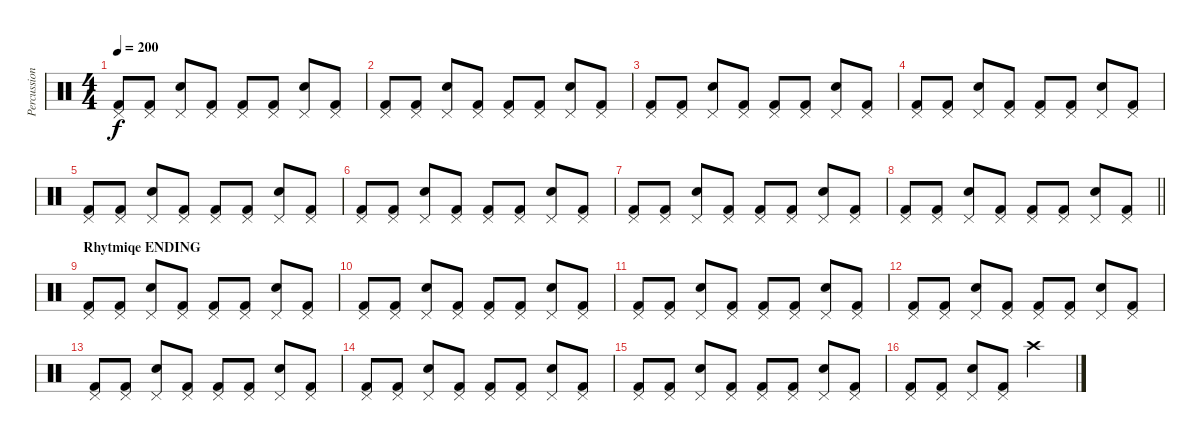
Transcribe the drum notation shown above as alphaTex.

\track ("Percussion" "Percussion") {instrument percussion}
\staff {score}
\articulation defaults
\ts (4 4)
\tempo 200
\clef neutral
\ks c
("Kick (hit) 2" "Pedal Hi-Hat (hit)").8{dy f} ("Kick (hit) 2" "Pedal Hi-Hat (hit)").8 ("Snare (hit) 2" "Pedal Hi-Hat (hit)").8 ("Kick (hit) 2" "Pedal Hi-Hat (hit)").8 ("Kick (hit) 2" "Pedal Hi-Hat (hit)").8 ("Kick (hit) 2" "Pedal Hi-Hat (hit)").8 ("Snare (hit) 2" "Pedal Hi-Hat (hit)").8 ("Kick (hit) 2" "Pedal Hi-Hat (hit)").8 |
("Kick (hit) 2" "Pedal Hi-Hat (hit)").8 ("Kick (hit) 2" "Pedal Hi-Hat (hit)").8 ("Snare (hit) 2" "Pedal Hi-Hat (hit)").8 ("Kick (hit) 2" "Pedal Hi-Hat (hit)").8 ("Kick (hit) 2" "Pedal Hi-Hat (hit)").8 ("Kick (hit) 2" "Pedal Hi-Hat (hit)").8 ("Snare (hit) 2" "Pedal Hi-Hat (hit)").8 ("Kick (hit) 2" "Pedal Hi-Hat (hit)").8 |
("Kick (hit) 2" "Pedal Hi-Hat (hit)").8 ("Kick (hit) 2" "Pedal Hi-Hat (hit)").8 ("Snare (hit) 2" "Pedal Hi-Hat (hit)").8 ("Kick (hit) 2" "Pedal Hi-Hat (hit)").8 ("Kick (hit) 2" "Pedal Hi-Hat (hit)").8 ("Kick (hit) 2" "Pedal Hi-Hat (hit)").8 ("Snare (hit) 2" "Pedal Hi-Hat (hit)").8 ("Kick (hit) 2" "Pedal Hi-Hat (hit)").8 |
("Kick (hit) 2" "Pedal Hi-Hat (hit)").8 ("Kick (hit) 2" "Pedal Hi-Hat (hit)").8 ("Snare (hit) 2" "Pedal Hi-Hat (hit)").8 ("Kick (hit) 2" "Pedal Hi-Hat (hit)").8 ("Kick (hit) 2" "Pedal Hi-Hat (hit)").8 ("Kick (hit) 2" "Pedal Hi-Hat (hit)").8 ("Snare (hit) 2" "Pedal Hi-Hat (hit)").8 ("Kick (hit) 2" "Pedal Hi-Hat (hit)").8 |
("Kick (hit) 2" "Pedal Hi-Hat (hit)").8 ("Kick (hit) 2" "Pedal Hi-Hat (hit)").8 ("Snare (hit) 2" "Pedal Hi-Hat (hit)").8 ("Kick (hit) 2" "Pedal Hi-Hat (hit)").8 ("Kick (hit) 2" "Pedal Hi-Hat (hit)").8 ("Kick (hit) 2" "Pedal Hi-Hat (hit)").8 ("Snare (hit) 2" "Pedal Hi-Hat (hit)").8 ("Kick (hit) 2" "Pedal Hi-Hat (hit)").8 |
("Kick (hit) 2" "Pedal Hi-Hat (hit)").8 ("Kick (hit) 2" "Pedal Hi-Hat (hit)").8 ("Snare (hit) 2" "Pedal Hi-Hat (hit)").8 ("Kick (hit) 2" "Pedal Hi-Hat (hit)").8 ("Kick (hit) 2" "Pedal Hi-Hat (hit)").8 ("Kick (hit) 2" "Pedal Hi-Hat (hit)").8 ("Snare (hit) 2" "Pedal Hi-Hat (hit)").8 ("Kick (hit) 2" "Pedal Hi-Hat (hit)").8 |
("Kick (hit) 2" "Pedal Hi-Hat (hit)").8 ("Kick (hit) 2" "Pedal Hi-Hat (hit)").8 ("Snare (hit) 2" "Pedal Hi-Hat (hit)").8 ("Kick (hit) 2" "Pedal Hi-Hat (hit)").8 ("Kick (hit) 2" "Pedal Hi-Hat (hit)").8 ("Kick (hit) 2" "Pedal Hi-Hat (hit)").8 ("Snare (hit) 2" "Pedal Hi-Hat (hit)").8 ("Kick (hit) 2" "Pedal Hi-Hat (hit)").8 |
\barLineRight lightlight
("Kick (hit) 2" "Pedal Hi-Hat (hit)").8 ("Kick (hit) 2" "Pedal Hi-Hat (hit)").8 ("Snare (hit) 2" "Pedal Hi-Hat (hit)").8 ("Kick (hit) 2" "Pedal Hi-Hat (hit)").8 ("Kick (hit) 2" "Pedal Hi-Hat (hit)").8 ("Kick (hit) 2" "Pedal Hi-Hat (hit)").8 ("Snare (hit) 2" "Pedal Hi-Hat (hit)").8 ("Kick (hit) 2" "Pedal Hi-Hat (hit)").8 |
\section ("" "Rhytmiqe ENDING")
("Kick (hit) 2" "Pedal Hi-Hat (hit)").8 ("Kick (hit) 2" "Pedal Hi-Hat (hit)").8 ("Snare (hit) 2" "Pedal Hi-Hat (hit)").8 ("Kick (hit) 2" "Pedal Hi-Hat (hit)").8 ("Kick (hit) 2" "Pedal Hi-Hat (hit)").8 ("Kick (hit) 2" "Pedal Hi-Hat (hit)").8 ("Snare (hit) 2" "Pedal Hi-Hat (hit)").8 ("Kick (hit) 2" "Pedal Hi-Hat (hit)").8 |
("Kick (hit) 2" "Pedal Hi-Hat (hit)").8 ("Kick (hit) 2" "Pedal Hi-Hat (hit)").8 ("Snare (hit) 2" "Pedal Hi-Hat (hit)").8 ("Kick (hit) 2" "Pedal Hi-Hat (hit)").8 ("Kick (hit) 2" "Pedal Hi-Hat (hit)").8 ("Kick (hit) 2" "Pedal Hi-Hat (hit)").8 ("Snare (hit) 2" "Pedal Hi-Hat (hit)").8 ("Kick (hit) 2" "Pedal Hi-Hat (hit)").8 |
("Kick (hit) 2" "Pedal Hi-Hat (hit)").8 ("Kick (hit) 2" "Pedal Hi-Hat (hit)").8 ("Snare (hit) 2" "Pedal Hi-Hat (hit)").8 ("Kick (hit) 2" "Pedal Hi-Hat (hit)").8 ("Kick (hit) 2" "Pedal Hi-Hat (hit)").8 ("Kick (hit) 2" "Pedal Hi-Hat (hit)").8 ("Snare (hit) 2" "Pedal Hi-Hat (hit)").8 ("Kick (hit) 2" "Pedal Hi-Hat (hit)").8 |
("Kick (hit) 2" "Pedal Hi-Hat (hit)").8 ("Kick (hit) 2" "Pedal Hi-Hat (hit)").8 ("Snare (hit) 2" "Pedal Hi-Hat (hit)").8 ("Kick (hit) 2" "Pedal Hi-Hat (hit)").8 ("Kick (hit) 2" "Pedal Hi-Hat (hit)").8 ("Kick (hit) 2" "Pedal Hi-Hat (hit)").8 ("Snare (hit) 2" "Pedal Hi-Hat (hit)").8 ("Kick (hit) 2" "Pedal Hi-Hat (hit)").8 |
("Kick (hit) 2" "Pedal Hi-Hat (hit)").8 ("Kick (hit) 2" "Pedal Hi-Hat (hit)").8 ("Snare (hit) 2" "Pedal Hi-Hat (hit)").8 ("Kick (hit) 2" "Pedal Hi-Hat (hit)").8 ("Kick (hit) 2" "Pedal Hi-Hat (hit)").8 ("Kick (hit) 2" "Pedal Hi-Hat (hit)").8 ("Snare (hit) 2" "Pedal Hi-Hat (hit)").8 ("Kick (hit) 2" "Pedal Hi-Hat (hit)").8 |
("Kick (hit) 2" "Pedal Hi-Hat (hit)").8 ("Kick (hit) 2" "Pedal Hi-Hat (hit)").8 ("Snare (hit) 2" "Pedal Hi-Hat (hit)").8 ("Kick (hit) 2" "Pedal Hi-Hat (hit)").8 ("Kick (hit) 2" "Pedal Hi-Hat (hit)").8 ("Kick (hit) 2" "Pedal Hi-Hat (hit)").8 ("Snare (hit) 2" "Pedal Hi-Hat (hit)").8 ("Kick (hit) 2" "Pedal Hi-Hat (hit)").8 |
("Kick (hit) 2" "Pedal Hi-Hat (hit)").8 ("Kick (hit) 2" "Pedal Hi-Hat (hit)").8 ("Snare (hit) 2" "Pedal Hi-Hat (hit)").8 ("Kick (hit) 2" "Pedal Hi-Hat (hit)").8 ("Kick (hit) 2" "Pedal Hi-Hat (hit)").8 ("Kick (hit) 2" "Pedal Hi-Hat (hit)").8 ("Snare (hit) 2" "Pedal Hi-Hat (hit)").8 ("Kick (hit) 2" "Pedal Hi-Hat (hit)").8 |
("Kick (hit) 2" "Pedal Hi-Hat (hit)").8 ("Kick (hit) 2" "Pedal Hi-Hat (hit)").8 ("Snare (hit) 2" "Pedal Hi-Hat (hit)").8 ("Kick (hit) 2" "Pedal Hi-Hat (hit)").8 "Crash high (hit)".2
